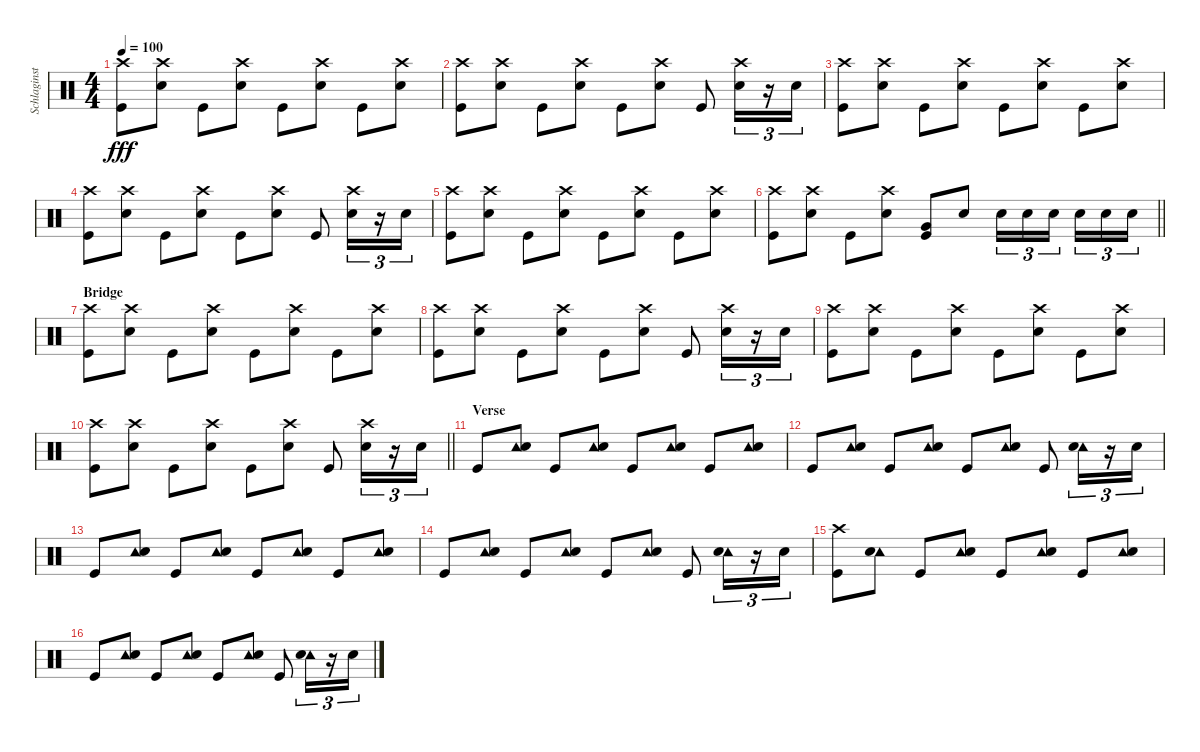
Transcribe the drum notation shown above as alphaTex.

\track ("Schlaginstrumente - Auswahl" "Schlaginst") {instrument percussion}
\staff {score}
\articulation defaults
\ts (4 4)
\tempo 100
\clef neutral
\ks c
("Crash high (hit)" "Kick (hit)").8{dy fff} ("Crash high (hit)" "Snare (hit) 2").8 "Kick (hit)".8 ("Crash high (hit)" "Snare (hit) 2").8 "Kick (hit)".8 ("Crash high (hit)" "Snare (hit) 2").8 "Kick (hit)".8 ("Crash high (hit)" "Snare (hit) 2").8 |
("Crash high (hit)" "Kick (hit)").8 ("Crash high (hit)" "Snare (hit) 2").8 "Kick (hit)".8 ("Crash high (hit)" "Snare (hit) 2").8 "Kick (hit)".8 ("Crash high (hit)" "Snare (hit) 2").8 "Kick (hit)".8 ("Crash high (hit)" "Snare (hit) 2").16{tu (3 2)} r.16{tu (3 2)} "Snare (hit) 2".16{tu (3 2)} |
("Crash high (hit)" "Kick (hit)").8 ("Crash high (hit)" "Snare (hit) 2").8 "Kick (hit)".8 ("Crash high (hit)" "Snare (hit) 2").8 "Kick (hit)".8 ("Crash high (hit)" "Snare (hit) 2").8 "Kick (hit)".8 ("Crash high (hit)" "Snare (hit) 2").8 |
("Crash high (hit)" "Kick (hit)").8 ("Crash high (hit)" "Snare (hit) 2").8 "Kick (hit)".8 ("Crash high (hit)" "Snare (hit) 2").8 "Kick (hit)".8 ("Crash high (hit)" "Snare (hit) 2").8 "Kick (hit)".8 ("Crash high (hit)" "Snare (hit) 2").16{tu (3 2)} r.16{tu (3 2)} "Snare (hit) 2".16{tu (3 2)} |
("Crash high (hit)" "Kick (hit)").8 ("Crash high (hit)" "Snare (hit) 2").8 "Kick (hit)".8 ("Crash high (hit)" "Snare (hit) 2").8 "Kick (hit)".8 ("Crash high (hit)" "Snare (hit) 2").8 "Kick (hit)".8 ("Crash high (hit)" "Snare (hit) 2").8 |
\barLineRight lightlight
("Crash high (hit)" "Kick (hit)").8 ("Crash high (hit)" "Snare (hit) 2").8 "Kick (hit)".8 ("Crash high (hit)" "Snare (hit) 2").8 ("Very Low Tom (hit)" "Kick (hit)").8 "Snare (hit) 2".8 "Snare (hit) 2".16{tu (3 2)} "Snare (hit) 2".16{tu (3 2)} "Snare (hit) 2".16{tu (3 2) beam splitsecondary} "Snare (hit) 2".16{tu (3 2)} "Snare (hit) 2".16{tu (3 2)} "Snare (hit) 2".16{tu (3 2)} |
\section ("" "Bridge")
("Crash high (hit)" "Kick (hit)").8 ("Crash high (hit)" "Snare (hit) 2").8 "Kick (hit)".8 ("Crash high (hit)" "Snare (hit) 2").8 "Kick (hit)".8 ("Crash high (hit)" "Snare (hit) 2").8 "Kick (hit)".8 ("Crash high (hit)" "Snare (hit) 2").8 |
("Crash high (hit)" "Kick (hit)").8 ("Crash high (hit)" "Snare (hit) 2").8 "Kick (hit)".8 ("Crash high (hit)" "Snare (hit) 2").8 "Kick (hit)".8 ("Crash high (hit)" "Snare (hit) 2").8 "Kick (hit)".8 ("Crash high (hit)" "Snare (hit) 2").16{tu (3 2)} r.16{tu (3 2)} "Snare (hit) 2".16{tu (3 2)} |
("Crash high (hit)" "Kick (hit)").8 ("Crash high (hit)" "Snare (hit) 2").8 "Kick (hit)".8 ("Crash high (hit)" "Snare (hit) 2").8 "Kick (hit)".8 ("Crash high (hit)" "Snare (hit) 2").8 "Kick (hit)".8 ("Crash high (hit)" "Snare (hit) 2").8 |
\barLineRight lightlight
("Crash high (hit)" "Kick (hit)").8 ("Crash high (hit)" "Snare (hit) 2").8 "Kick (hit)".8 ("Crash high (hit)" "Snare (hit) 2").8 "Kick (hit)".8 ("Crash high (hit)" "Snare (hit) 2").8 "Kick (hit)".8 ("Crash high (hit)" "Snare (hit) 2").16{tu (3 2)} r.16{tu (3 2)} "Snare (hit) 2".16{tu (3 2)} |
\section ("" "Verse")
"Kick (hit)".8 ("Tambourine (hit)" "Snare (hit) 2").8 "Kick (hit)".8 ("Tambourine (hit)" "Snare (hit) 2").8 "Kick (hit)".8 ("Tambourine (hit)" "Snare (hit) 2").8 "Kick (hit)".8 ("Tambourine (hit)" "Snare (hit) 2").8 |
"Kick (hit)".8 ("Tambourine (hit)" "Snare (hit) 2").8 "Kick (hit)".8 ("Tambourine (hit)" "Snare (hit) 2").8 "Kick (hit)".8 ("Tambourine (hit)" "Snare (hit) 2").8 "Kick (hit)".8 ("Tambourine (hit)" "Snare (hit) 2").16{tu (3 2)} r.16{tu (3 2)} "Snare (hit) 2".16{tu (3 2)} |
"Kick (hit)".8 ("Tambourine (hit)" "Snare (hit) 2").8 "Kick (hit)".8 ("Tambourine (hit)" "Snare (hit) 2").8 "Kick (hit)".8 ("Tambourine (hit)" "Snare (hit) 2").8 "Kick (hit)".8 ("Tambourine (hit)" "Snare (hit) 2").8 |
"Kick (hit)".8 ("Tambourine (hit)" "Snare (hit) 2").8 "Kick (hit)".8 ("Tambourine (hit)" "Snare (hit) 2").8 "Kick (hit)".8 ("Tambourine (hit)" "Snare (hit) 2").8 "Kick (hit)".8 ("Tambourine (hit)" "Snare (hit) 2").16{tu (3 2)} r.16{tu (3 2)} "Snare (hit) 2".16{tu (3 2)} |
("Crash high (hit)" "Kick (hit)").8 ("Tambourine (hit)" "Snare (hit) 2").8 "Kick (hit)".8 ("Tambourine (hit)" "Snare (hit) 2").8 "Kick (hit)".8 ("Tambourine (hit)" "Snare (hit) 2").8 "Kick (hit)".8 ("Tambourine (hit)" "Snare (hit) 2").8 |
"Kick (hit)".8 ("Tambourine (hit)" "Snare (hit) 2").8 "Kick (hit)".8 ("Tambourine (hit)" "Snare (hit) 2").8 "Kick (hit)".8 ("Tambourine (hit)" "Snare (hit) 2").8 "Kick (hit)".8 ("Tambourine (hit)" "Snare (hit) 2").16{tu (3 2)} r.16{tu (3 2)} "Snare (hit) 2".16{tu (3 2)}
